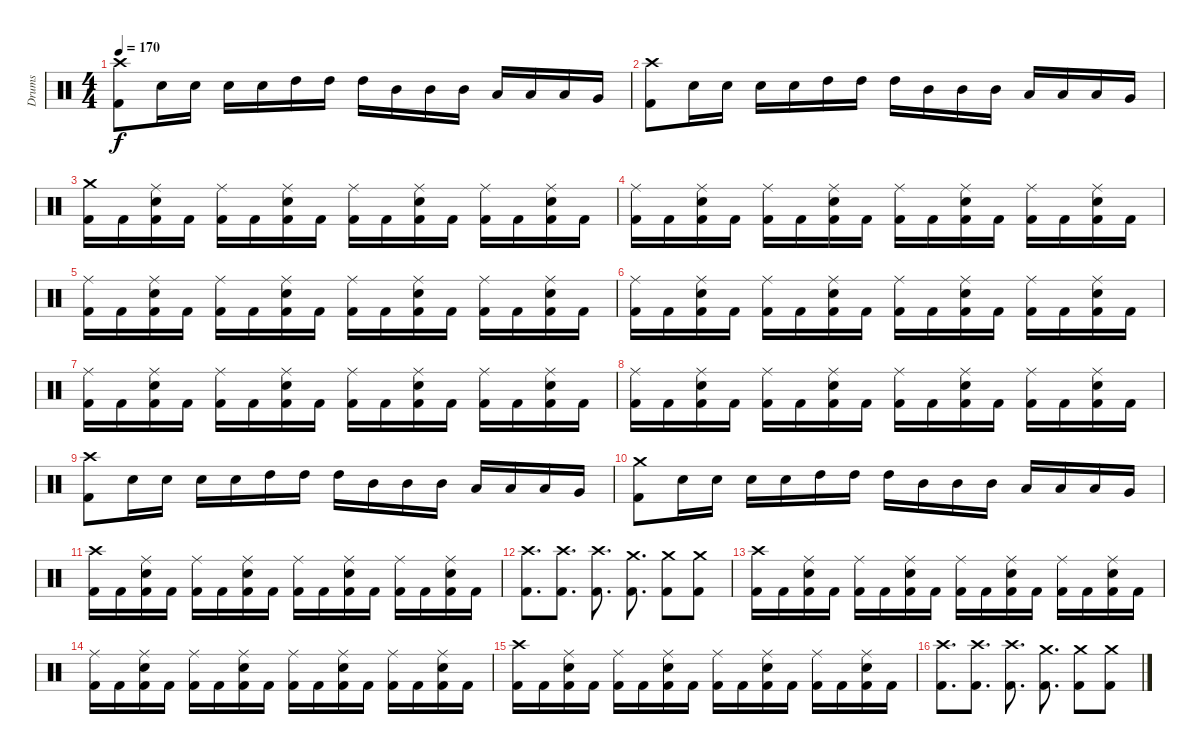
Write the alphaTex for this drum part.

\track ("Drums" "Drums") {instrument percussion}
\staff {score}
\articulation defaults
\ts (4 4)
\tempo 170
\clef neutral
\ks c
("Crash high (hit)" "Kick (hit) 2").8{dy f} "Snare (hit) 2".16 "Snare (hit) 2".16 "Snare (hit) 2".16 "Snare (hit) 2".16 "High Tom (hit)".16 "High Tom (hit)".16 "High Tom (hit)".16 "Mid Tom (hit)".16 "Mid Tom (hit)".16 "Mid Tom (hit)".16 "Low Tom (hit)".16 "Low Tom (hit)".16 "Low Tom (hit)".16 "Very Low Tom (hit)".16 |
("Crash high (hit)" "Kick (hit) 2").8 "Snare (hit) 2".16 "Snare (hit) 2".16 "Snare (hit) 2".16 "Snare (hit) 2".16 "High Tom (hit)".16 "High Tom (hit)".16 "High Tom (hit)".16 "Mid Tom (hit)".16 "Mid Tom (hit)".16 "Mid Tom (hit)".16 "Low Tom (hit)".16 "Low Tom (hit)".16 "Low Tom (hit)".16 "Very Low Tom (hit)".16 |
("Crash medium (hit)" "Kick (hit) 2").16 "Kick (hit) 2".16 ("Ride (middle)" "Snare (hit) 2" "Kick (hit) 2").16 "Kick (hit) 2".16 ("Ride (middle)" "Kick (hit) 2").16 "Kick (hit) 2".16 ("Ride (middle)" "Snare (hit) 2" "Kick (hit) 2").16 "Kick (hit) 2".16 ("Ride (middle)" "Kick (hit) 2").16 "Kick (hit) 2".16 ("Ride (middle)" "Snare (hit) 2" "Kick (hit) 2").16 "Kick (hit) 2".16 ("Ride (middle)" "Kick (hit) 2").16 "Kick (hit) 2".16 ("Ride (middle)" "Snare (hit) 2" "Kick (hit) 2").16 "Kick (hit) 2".16 |
("Ride (middle)" "Kick (hit) 2").16 "Kick (hit) 2".16 ("Ride (middle)" "Snare (hit) 2" "Kick (hit) 2").16 "Kick (hit) 2".16 ("Ride (middle)" "Kick (hit) 2").16 "Kick (hit) 2".16 ("Ride (middle)" "Snare (hit) 2" "Kick (hit) 2").16 "Kick (hit) 2".16 ("Ride (middle)" "Kick (hit) 2").16 "Kick (hit) 2".16 ("Ride (middle)" "Snare (hit) 2" "Kick (hit) 2").16 "Kick (hit) 2".16 ("Ride (middle)" "Kick (hit) 2").16 "Kick (hit) 2".16 ("Ride (middle)" "Snare (hit) 2" "Kick (hit) 2").16 "Kick (hit) 2".16 |
("Ride (middle)" "Kick (hit) 2").16 "Kick (hit) 2".16 ("Ride (middle)" "Snare (hit) 2" "Kick (hit) 2").16 "Kick (hit) 2".16 ("Ride (middle)" "Kick (hit) 2").16 "Kick (hit) 2".16 ("Ride (middle)" "Snare (hit) 2" "Kick (hit) 2").16 "Kick (hit) 2".16 ("Ride (middle)" "Kick (hit) 2").16 "Kick (hit) 2".16 ("Ride (middle)" "Snare (hit) 2" "Kick (hit) 2").16 "Kick (hit) 2".16 ("Ride (middle)" "Kick (hit) 2").16 "Kick (hit) 2".16 ("Ride (middle)" "Snare (hit) 2" "Kick (hit) 2").16 "Kick (hit) 2".16 |
("Ride (middle)" "Kick (hit) 2").16 "Kick (hit) 2".16 ("Ride (middle)" "Snare (hit) 2" "Kick (hit) 2").16 "Kick (hit) 2".16 ("Ride (middle)" "Kick (hit) 2").16 "Kick (hit) 2".16 ("Ride (middle)" "Snare (hit) 2" "Kick (hit) 2").16 "Kick (hit) 2".16 ("Ride (middle)" "Kick (hit) 2").16 "Kick (hit) 2".16 ("Ride (middle)" "Snare (hit) 2" "Kick (hit) 2").16 "Kick (hit) 2".16 ("Ride (middle)" "Kick (hit) 2").16 "Kick (hit) 2".16 ("Ride (middle)" "Snare (hit) 2" "Kick (hit) 2").16 "Kick (hit) 2".16 |
("Ride (middle)" "Kick (hit) 2").16 "Kick (hit) 2".16 ("Ride (middle)" "Snare (hit) 2" "Kick (hit) 2").16 "Kick (hit) 2".16 ("Ride (middle)" "Kick (hit) 2").16 "Kick (hit) 2".16 ("Ride (middle)" "Snare (hit) 2" "Kick (hit) 2").16 "Kick (hit) 2".16 ("Ride (middle)" "Kick (hit) 2").16 "Kick (hit) 2".16 ("Ride (middle)" "Snare (hit) 2" "Kick (hit) 2").16 "Kick (hit) 2".16 ("Ride (middle)" "Kick (hit) 2").16 "Kick (hit) 2".16 ("Ride (middle)" "Snare (hit) 2" "Kick (hit) 2").16 "Kick (hit) 2".16 |
("Ride (middle)" "Kick (hit) 2").16 "Kick (hit) 2".16 ("Ride (middle)" "Snare (hit) 2" "Kick (hit) 2").16 "Kick (hit) 2".16 ("Ride (middle)" "Kick (hit) 2").16 "Kick (hit) 2".16 ("Ride (middle)" "Snare (hit) 2" "Kick (hit) 2").16 "Kick (hit) 2".16 ("Ride (middle)" "Kick (hit) 2").16 "Kick (hit) 2".16 ("Ride (middle)" "Snare (hit) 2" "Kick (hit) 2").16 "Kick (hit) 2".16 ("Ride (middle)" "Kick (hit) 2").16 "Kick (hit) 2".16 ("Ride (middle)" "Snare (hit) 2" "Kick (hit) 2").16 "Kick (hit) 2".16 |
("Crash high (hit)" "Kick (hit) 2").8 "Snare (hit) 2".16 "Snare (hit) 2".16 "Snare (hit) 2".16 "Snare (hit) 2".16 "High Tom (hit)".16 "High Tom (hit)".16 "High Tom (hit)".16 "Mid Tom (hit)".16 "Mid Tom (hit)".16 "Mid Tom (hit)".16 "Low Tom (hit)".16 "Low Tom (hit)".16 "Low Tom (hit)".16 "Very Low Tom (hit)".16 |
("Crash medium (hit)" "Kick (hit) 2").8 "Snare (hit) 2".16 "Snare (hit) 2".16 "Snare (hit) 2".16 "Snare (hit) 2".16 "High Tom (hit)".16 "High Tom (hit)".16 "High Tom (hit)".16 "Mid Tom (hit)".16 "Mid Tom (hit)".16 "Mid Tom (hit)".16 "Low Tom (hit)".16 "Low Tom (hit)".16 "Low Tom (hit)".16 "Very Low Tom (hit)".16 |
("Crash high (hit)" "Kick (hit) 2").16 "Kick (hit) 2".16 ("Ride (middle)" "Snare (hit) 2" "Kick (hit) 2").16 "Kick (hit) 2".16 ("Ride (middle)" "Kick (hit) 2").16 "Kick (hit) 2".16 ("Ride (middle)" "Snare (hit) 2" "Kick (hit) 2").16 "Kick (hit) 2".16 ("Ride (middle)" "Kick (hit) 2").16 "Kick (hit) 2".16 ("Ride (middle)" "Snare (hit) 2" "Kick (hit) 2").16 "Kick (hit) 2".16 ("Ride (middle)" "Kick (hit) 2").16 "Kick (hit) 2".16 ("Ride (middle)" "Snare (hit) 2" "Kick (hit) 2").16 "Kick (hit) 2".16 |
("Crash high (hit)" "Kick (hit) 2").8{d} ("Crash high (hit)" "Kick (hit) 2").8{d} ("Crash high (hit)" "Kick (hit) 2").8{d} ("Crash medium (hit)" "Kick (hit) 2").8{d} ("Crash medium (hit)" "Kick (hit) 2").8 ("Crash medium (hit)" "Kick (hit) 2").8 |
("Crash high (hit)" "Kick (hit) 2").16 "Kick (hit) 2".16 ("Ride (middle)" "Snare (hit) 2" "Kick (hit) 2").16 "Kick (hit) 2".16 ("Ride (middle)" "Kick (hit) 2").16 "Kick (hit) 2".16 ("Ride (middle)" "Snare (hit) 2" "Kick (hit) 2").16 "Kick (hit) 2".16 ("Ride (middle)" "Kick (hit) 2").16 "Kick (hit) 2".16 ("Ride (middle)" "Snare (hit) 2" "Kick (hit) 2").16 "Kick (hit) 2".16 ("Ride (middle)" "Kick (hit) 2").16 "Kick (hit) 2".16 ("Ride (middle)" "Snare (hit) 2" "Kick (hit) 2").16 "Kick (hit) 2".16 |
("Ride (middle)" "Kick (hit) 2").16 "Kick (hit) 2".16 ("Ride (middle)" "Snare (hit) 2" "Kick (hit) 2").16 "Kick (hit) 2".16 ("Ride (middle)" "Kick (hit) 2").16 "Kick (hit) 2".16 ("Ride (middle)" "Snare (hit) 2" "Kick (hit) 2").16 "Kick (hit) 2".16 ("Ride (middle)" "Kick (hit) 2").16 "Kick (hit) 2".16 ("Ride (middle)" "Snare (hit) 2" "Kick (hit) 2").16 "Kick (hit) 2".16 ("Ride (middle)" "Kick (hit) 2").16 "Kick (hit) 2".16 ("Ride (middle)" "Snare (hit) 2" "Kick (hit) 2").16 "Kick (hit) 2".16 |
("Crash high (hit)" "Kick (hit) 2").16 "Kick (hit) 2".16 ("Ride (middle)" "Snare (hit) 2" "Kick (hit) 2").16 "Kick (hit) 2".16 ("Ride (middle)" "Kick (hit) 2").16 "Kick (hit) 2".16 ("Ride (middle)" "Snare (hit) 2" "Kick (hit) 2").16 "Kick (hit) 2".16 ("Ride (middle)" "Kick (hit) 2").16 "Kick (hit) 2".16 ("Ride (middle)" "Snare (hit) 2" "Kick (hit) 2").16 "Kick (hit) 2".16 ("Ride (middle)" "Kick (hit) 2").16 "Kick (hit) 2".16 ("Ride (middle)" "Snare (hit) 2" "Kick (hit) 2").16 "Kick (hit) 2".16 |
("Crash high (hit)" "Kick (hit) 2").8{d} ("Crash high (hit)" "Kick (hit) 2").8{d} ("Crash high (hit)" "Kick (hit) 2").8{d} ("Crash medium (hit)" "Kick (hit) 2").8{d} ("Crash medium (hit)" "Kick (hit) 2").8 ("Crash medium (hit)" "Kick (hit) 2").8
